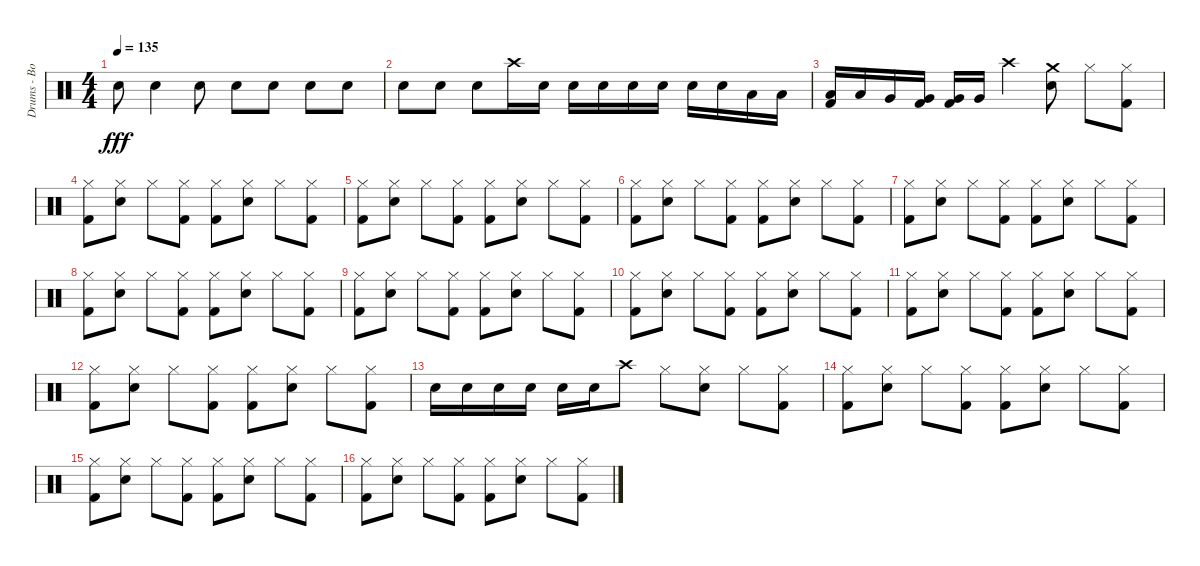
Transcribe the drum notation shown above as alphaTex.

\track ("Drums - Bobby Schayer" "Drums - Bo") {instrument percussion}
\staff {score}
\articulation defaults
\ts (4 4)
\tempo 135
\clef neutral
\ks c "Electric Snare (hit)".8{dy fff} "Electric Snare (hit)".4 "Electric Snare (hit)".8 "Electric Snare (hit)".8 "Electric Snare (hit)".8 "Electric Snare (hit)".8 "Electric Snare (hit)".8
|
"Electric Snare (hit)".8 "Electric Snare (hit)".8 "Electric Snare (hit)".8 "Crash high (hit)".16 "Electric Snare (hit)".16 "Electric Snare (hit)".16 "Electric Snare (hit)".16 "Electric Snare (hit)".16 "Electric Snare (hit)".16 "Electric Snare (hit)".16 "Electric Snare (hit)".16 "Low Tom (hit)".16 "Low Tom (hit)".16 |
("Low Tom (hit)" "Kick (hit) 2").16 "Low Tom (hit)".16 "Very Low Tom (hit)".16 ("Very Low Tom (hit)" "Kick (hit) 2").16 ("Very Low Tom (hit)" "Kick (hit) 2").16 "Very Low Tom (hit)".16 "Crash high (hit)".4 ("Crash medium (hit)" "Electric Snare (hit)").8 "Hi-Hat (closed)".8 ("Hi-Hat (closed)" "Kick (hit) 2").8 |
("Hi-Hat (closed)" "Kick (hit) 2").8 ("Hi-Hat (closed)" "Electric Snare (hit)").8 "Hi-Hat (closed)".8 ("Hi-Hat (closed)" "Kick (hit) 2").8 ("Hi-Hat (closed)" "Kick (hit) 2").8 ("Hi-Hat (closed)" "Electric Snare (hit)").8 "Hi-Hat (closed)".8 ("Hi-Hat (closed)" "Kick (hit) 2").8 |
("Hi-Hat (closed)" "Kick (hit) 2").8 ("Hi-Hat (closed)" "Electric Snare (hit)").8 "Hi-Hat (closed)".8 ("Hi-Hat (closed)" "Kick (hit) 2").8 ("Hi-Hat (closed)" "Kick (hit) 2").8 ("Hi-Hat (closed)" "Electric Snare (hit)").8 "Hi-Hat (closed)".8 ("Hi-Hat (closed)" "Kick (hit) 2").8 |
("Hi-Hat (closed)" "Kick (hit) 2").8 ("Hi-Hat (closed)" "Electric Snare (hit)").8 "Hi-Hat (closed)".8 ("Hi-Hat (closed)" "Kick (hit) 2").8 ("Hi-Hat (closed)" "Kick (hit) 2").8 ("Hi-Hat (closed)" "Electric Snare (hit)").8 "Hi-Hat (closed)".8 ("Hi-Hat (closed)" "Kick (hit) 2").8 |
("Hi-Hat (closed)" "Kick (hit) 2").8 ("Hi-Hat (closed)" "Electric Snare (hit)").8 "Hi-Hat (closed)".8 ("Hi-Hat (closed)" "Kick (hit) 2").8 ("Hi-Hat (closed)" "Kick (hit) 2").8 ("Hi-Hat (closed)" "Electric Snare (hit)").8 "Hi-Hat (closed)".8 ("Hi-Hat (closed)" "Kick (hit) 2").8 |
("Hi-Hat (closed)" "Kick (hit) 2").8 ("Hi-Hat (closed)" "Electric Snare (hit)").8 "Hi-Hat (closed)".8 ("Hi-Hat (closed)" "Kick (hit) 2").8 ("Hi-Hat (closed)" "Kick (hit) 2").8 ("Hi-Hat (closed)" "Electric Snare (hit)").8 "Hi-Hat (closed)".8 ("Hi-Hat (closed)" "Kick (hit) 2").8 |
("Hi-Hat (closed)" "Kick (hit) 2").8 ("Hi-Hat (closed)" "Electric Snare (hit)").8 "Hi-Hat (closed)".8 ("Hi-Hat (closed)" "Kick (hit) 2").8 ("Hi-Hat (closed)" "Kick (hit) 2").8 ("Hi-Hat (closed)" "Electric Snare (hit)").8 "Hi-Hat (closed)".8 ("Hi-Hat (closed)" "Kick (hit) 2").8 |
("Hi-Hat (closed)" "Kick (hit) 2").8 ("Hi-Hat (closed)" "Electric Snare (hit)").8 "Hi-Hat (closed)".8 ("Hi-Hat (closed)" "Kick (hit) 2").8 ("Hi-Hat (closed)" "Kick (hit) 2").8 ("Hi-Hat (closed)" "Electric Snare (hit)").8 "Hi-Hat (closed)".8 ("Hi-Hat (closed)" "Kick (hit) 2").8 |
("Hi-Hat (closed)" "Kick (hit) 2").8 ("Hi-Hat (closed)" "Electric Snare (hit)").8 "Hi-Hat (closed)".8 ("Hi-Hat (closed)" "Kick (hit) 2").8 ("Hi-Hat (closed)" "Kick (hit) 2").8 ("Hi-Hat (closed)" "Electric Snare (hit)").8 "Hi-Hat (closed)".8 ("Hi-Hat (closed)" "Kick (hit) 2").8 |
("Hi-Hat (closed)" "Kick (hit) 2").8 ("Hi-Hat (closed)" "Electric Snare (hit)").8 "Hi-Hat (closed)".8 ("Hi-Hat (closed)" "Kick (hit) 2").8 ("Hi-Hat (closed)" "Kick (hit) 2").8 ("Hi-Hat (closed)" "Electric Snare (hit)").8 "Hi-Hat (closed)".8 ("Hi-Hat (closed)" "Kick (hit) 2").8 |
"Electric Snare (hit)".16 "Electric Snare (hit)".16 "Electric Snare (hit)".16 "Electric Snare (hit)".16 "Electric Snare (hit)".16 "Electric Snare (hit)".16 "Crash high (hit)".8 "Hi-Hat (closed)".8 ("Hi-Hat (closed)" "Electric Snare (hit)").8 "Hi-Hat (closed)".8 ("Hi-Hat (closed)" "Kick (hit) 2").8 |
("Hi-Hat (closed)" "Kick (hit) 2").8 ("Hi-Hat (closed)" "Electric Snare (hit)").8 "Hi-Hat (closed)".8 ("Hi-Hat (closed)" "Kick (hit) 2").8 ("Hi-Hat (closed)" "Kick (hit) 2").8 ("Hi-Hat (closed)" "Electric Snare (hit)").8 "Hi-Hat (closed)".8 ("Hi-Hat (closed)" "Kick (hit) 2").8 |
("Hi-Hat (closed)" "Kick (hit) 2").8 ("Hi-Hat (closed)" "Electric Snare (hit)").8 "Hi-Hat (closed)".8 ("Hi-Hat (closed)" "Kick (hit) 2").8 ("Hi-Hat (closed)" "Kick (hit) 2").8 ("Hi-Hat (closed)" "Electric Snare (hit)").8 "Hi-Hat (closed)".8 ("Hi-Hat (closed)" "Kick (hit) 2").8 |
("Hi-Hat (closed)" "Kick (hit) 2").8 ("Hi-Hat (closed)" "Electric Snare (hit)").8 "Hi-Hat (closed)".8 ("Hi-Hat (closed)" "Kick (hit) 2").8 ("Hi-Hat (closed)" "Kick (hit) 2").8 ("Hi-Hat (closed)" "Electric Snare (hit)").8 "Hi-Hat (closed)".8 ("Hi-Hat (closed)" "Kick (hit) 2").8
